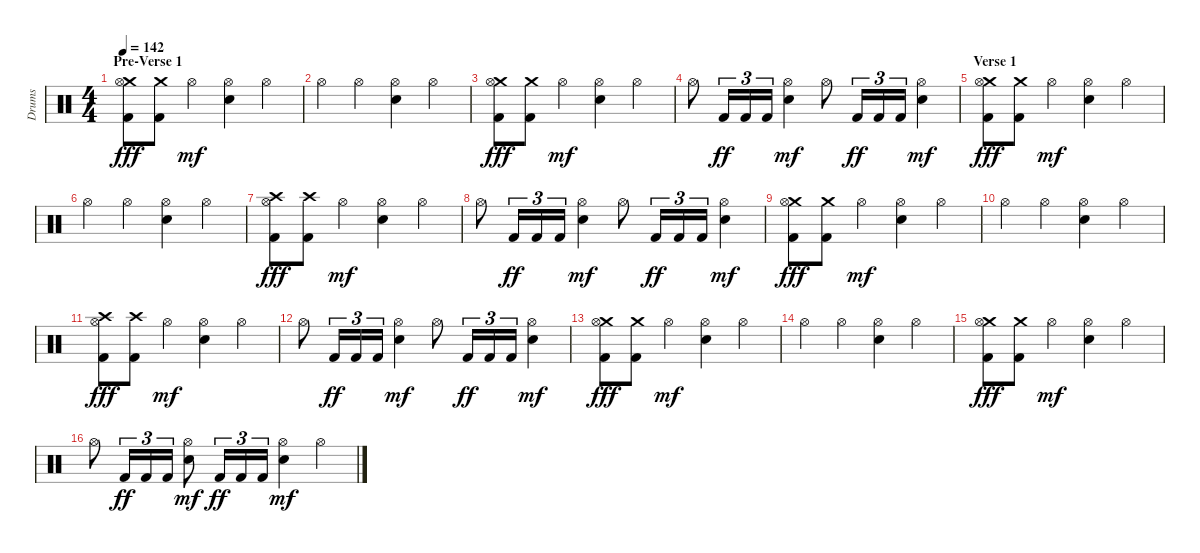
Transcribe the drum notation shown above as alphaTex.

\track ("Drums" "Drums") {instrument percussion}
\staff {score}
\articulation defaults
\ts (4 4)
\section ("" "Pre-Verse 1")
\tempo 142
\clef neutral
\ks c
("Crash medium (hit)" "Hi-Hat (open)" "Kick (hit) 2").8{dy fff} ("Crash medium (hit)" "Kick (hit) 2").8 "Hi-Hat (open)".4{dy mf} ("Hi-Hat (open)" "Snare (hit) 2").4 "Hi-Hat (open)".4 |
"Hi-Hat (open)".4 "Hi-Hat (open)".4 ("Hi-Hat (open)" "Snare (hit) 2").4 "Hi-Hat (open)".4 |
("Crash medium (hit)" "Hi-Hat (open)" "Kick (hit) 2").8{dy fff} ("Crash medium (hit)" "Kick (hit) 2").8 "Hi-Hat (open)".4{dy mf} ("Hi-Hat (open)" "Snare (hit) 2").4 "Hi-Hat (open)".4 |
"Hi-Hat (open)".8 "Kick (hit) 2".16{tu (3 2) dy ff} "Kick (hit) 2".16{tu (3 2)} "Kick (hit) 2".16{tu (3 2)} ("Hi-Hat (open)" "Snare (hit) 2").4{dy mf} "Hi-Hat (open)".8 "Kick (hit) 2".16{tu (3 2) dy ff} "Kick (hit) 2".16{tu (3 2)} "Kick (hit) 2".16{tu (3 2)} ("Hi-Hat (open)" "Snare (hit) 2").4{dy mf} |
\section ("" "Verse 1")
("Crash medium (hit)" "Hi-Hat (open)" "Kick (hit) 2").8{dy fff} ("Crash medium (hit)" "Kick (hit) 2").8 "Hi-Hat (open)".4{dy mf} ("Hi-Hat (open)" "Snare (hit) 2").4 "Hi-Hat (open)".4 |
"Hi-Hat (open)".4 "Hi-Hat (open)".4 ("Hi-Hat (open)" "Snare (hit) 2").4 "Hi-Hat (open)".4 |
("Crash high (hit)" "Hi-Hat (open)" "Kick (hit) 2").8{dy fff} ("Crash high (hit)" "Kick (hit) 2").8 "Hi-Hat (open)".4{dy mf} ("Hi-Hat (open)" "Snare (hit) 2").4 "Hi-Hat (open)".4 |
"Hi-Hat (open)".8 "Kick (hit) 2".16{tu (3 2) dy ff} "Kick (hit) 2".16{tu (3 2)} "Kick (hit) 2".16{tu (3 2)} ("Hi-Hat (open)" "Snare (hit) 2").4{dy mf} "Hi-Hat (open)".8 "Kick (hit) 2".16{tu (3 2) dy ff} "Kick (hit) 2".16{tu (3 2)} "Kick (hit) 2".16{tu (3 2)} ("Hi-Hat (open)" "Snare (hit) 2").4{dy mf} |
("Crash medium (hit)" "Hi-Hat (open)" "Kick (hit) 2").8{dy fff} ("Crash medium (hit)" "Kick (hit) 2").8 "Hi-Hat (open)".4{dy mf} ("Hi-Hat (open)" "Snare (hit) 2").4 "Hi-Hat (open)".4 |
"Hi-Hat (open)".4 "Hi-Hat (open)".4 ("Hi-Hat (open)" "Snare (hit) 2").4 "Hi-Hat (open)".4 |
("Crash high (hit)" "Hi-Hat (open)" "Kick (hit) 2").8{dy fff} ("Crash high (hit)" "Kick (hit) 2").8 "Hi-Hat (open)".4{dy mf} ("Hi-Hat (open)" "Snare (hit) 2").4 "Hi-Hat (open)".4 |
"Hi-Hat (open)".8 "Kick (hit) 2".16{tu (3 2) dy ff} "Kick (hit) 2".16{tu (3 2)} "Kick (hit) 2".16{tu (3 2)} ("Hi-Hat (open)" "Snare (hit) 2").4{dy mf} "Hi-Hat (open)".8 "Kick (hit) 2".16{tu (3 2) dy ff} "Kick (hit) 2".16{tu (3 2)} "Kick (hit) 2".16{tu (3 2)} ("Hi-Hat (open)" "Snare (hit) 2").4{dy mf} |
("Crash medium (hit)" "Hi-Hat (open)" "Kick (hit) 2").8{dy fff} ("Crash medium (hit)" "Kick (hit) 2").8 "Hi-Hat (open)".4{dy mf} ("Hi-Hat (open)" "Snare (hit) 2").4 "Hi-Hat (open)".4 |
"Hi-Hat (open)".4 "Hi-Hat (open)".4 ("Hi-Hat (open)" "Snare (hit) 2").4 "Hi-Hat (open)".4 |
("Crash medium (hit)" "Hi-Hat (open)" "Kick (hit) 2").8{dy fff} ("Crash medium (hit)" "Kick (hit) 2").8 "Hi-Hat (open)".4{dy mf} ("Hi-Hat (open)" "Snare (hit) 2").4 "Hi-Hat (open)".4 |
"Hi-Hat (open)".8 "Kick (hit) 2".16{tu (3 2) dy ff} "Kick (hit) 2".16{tu (3 2)} "Kick (hit) 2".16{tu (3 2)} ("Hi-Hat (open)" "Snare (hit) 2").8{dy mf} "Kick (hit) 2".16{tu (3 2) dy ff} "Kick (hit) 2".16{tu (3 2)} "Kick (hit) 2".16{tu (3 2)} ("Hi-Hat (open)" "Snare (hit) 2").4{dy mf} "Hi-Hat (open)".4
